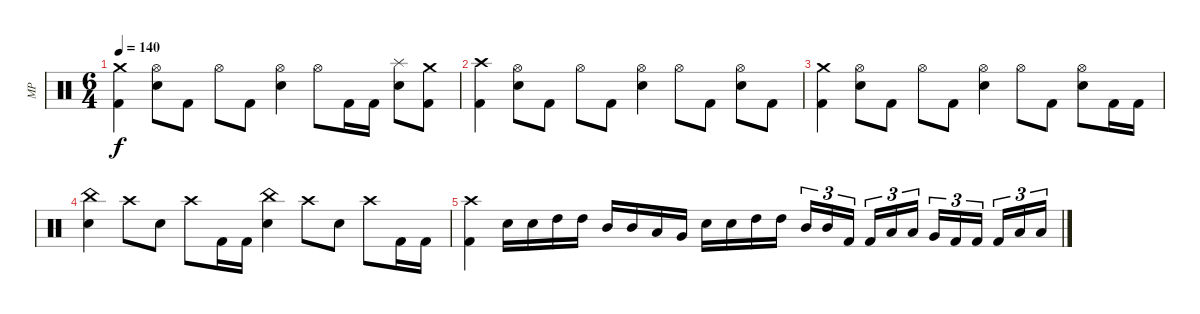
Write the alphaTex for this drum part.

\track ("MP" "MP") {instrument percussion}
\staff {score}
\articulation defaults
\ts (6 4)
\tempo 140
\clef neutral
\ks c
("Kick (hit) 2" "Crash medium (hit)").4{dy f} ("Electric Snare (hit)" "Hi-Hat (open)").8 "Kick (hit) 2".8 "Hi-Hat (open)".8 "Kick (hit) 2".8 ("Electric Snare (hit)" "Hi-Hat (open)").4 "Hi-Hat (open)".8 "Kick (hit) 2".16 "Kick (hit) 2".16 ("Electric Snare (hit)" "Splash (hit)").8 ("Kick (hit) 2" "Crash medium (hit)").8 |
("Kick (hit) 2" "Crash high (hit)").4 ("Electric Snare (hit)" "Hi-Hat (open)").8 "Kick (hit) 2".8 "Hi-Hat (open)".8 "Kick (hit) 2".8 ("Electric Snare (hit)" "Hi-Hat (open)").4 "Hi-Hat (open)".8 "Kick (hit) 2".8 ("Electric Snare (hit)" "Hi-Hat (open)").8 "Kick (hit) 2".8 |
("Kick (hit) 2" "Crash medium (hit)").4 ("Electric Snare (hit)" "Hi-Hat (open)").8 "Kick (hit) 2".8 "Hi-Hat (open)".8 "Kick (hit) 2".8 ("Electric Snare (hit)" "Hi-Hat (open)").4 "Hi-Hat (open)".8 "Kick (hit) 2".8 ("Electric Snare (hit)" "Hi-Hat (open)").8 "Kick (hit) 2".16 "Kick (hit) 2".16 |
("Electric Snare (hit)" "China (hit)").4 "Crash high (hit)".8 "Electric Snare (hit)".8 "Crash high (hit)".8 "Kick (hit) 2".16 "Kick (hit) 2".16 ("Electric Snare (hit)" "China (hit)").4 "Crash high (hit)".8 "Electric Snare (hit)".8 "Crash high (hit)".8 "Kick (hit) 2".16 "Kick (hit) 2".16 |
("Kick (hit) 2" "Crash high (hit)").4 "Electric Snare (hit)".16 "Electric Snare (hit)".16 "High Tom (hit)".16 "High Tom (hit)".16 "Mid Tom (hit)".16 "Mid Tom (hit)".16 "Low Tom (hit)".16 "Very Low Tom (hit)".16 "Electric Snare (hit)".16 "Electric Snare (hit)".16 "High Tom (hit)".16 "High Tom (hit)".16{beam splitsecondary} "Mid Tom (hit)".16{tu (3 2)} "Mid Tom (hit)".16{tu (3 2)} "Kick (hit) 2".16{tu (3 2) beam splitsecondary} "Kick (hit) 2".16{tu (3 2)} "Low Tom (hit)".16{tu (3 2)} "Low Tom (hit)".16{tu (3 2) beam splitsecondary} "Very Low Tom (hit)".16{tu (3 2)} "Kick (hit) 2".16{tu (3 2)} "Kick (hit) 2".16{tu (3 2) beam splitsecondary} "Kick (hit) 2".16{tu (3 2)} "Low Floor Tom (hit)".16{tu (3 2)} "Low Floor Tom (hit)".16{tu (3 2)}
